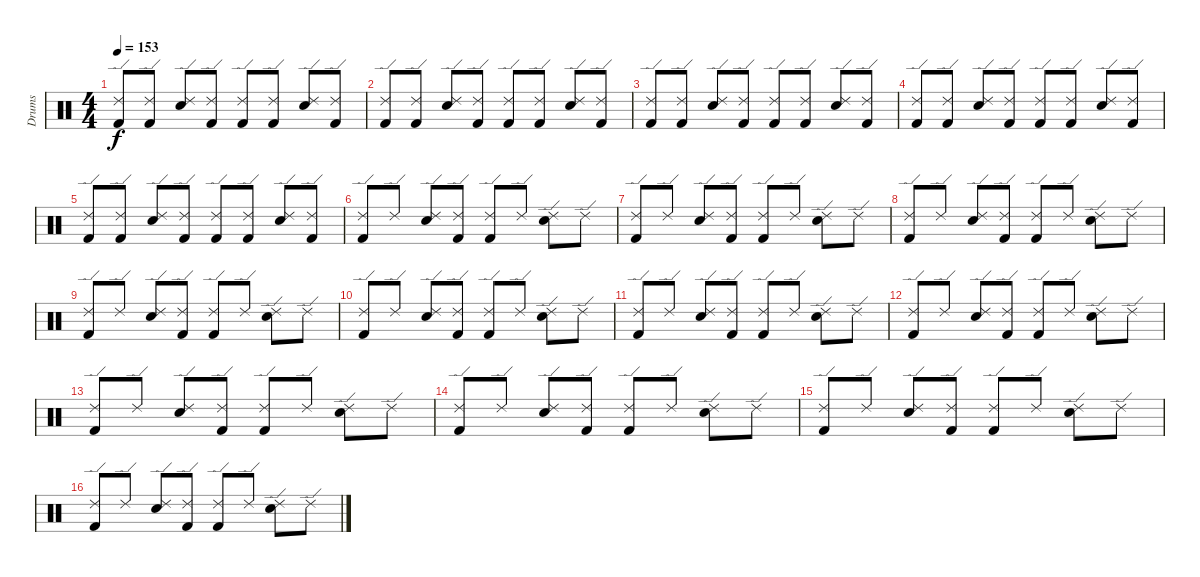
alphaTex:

\track ("Drums" "Drums") {instrument percussion}
\staff {score}
\articulation defaults
\ts (4 4)
\tempo 153
\clef neutral
\ks c
("Kick (hit) 2" "Ride (edge) 2").8{dy f} ("Kick (hit) 2" "Ride (edge) 2").8 ("Electric Snare (hit)" "Ride (edge) 2").8 ("Kick (hit) 2" "Ride (edge) 2").8 ("Kick (hit) 2" "Ride (edge) 2").8 ("Kick (hit) 2" "Ride (edge) 2").8 ("Electric Snare (hit)" "Ride (edge) 2").8 ("Kick (hit) 2" "Ride (edge) 2").8 |
("Kick (hit) 2" "Ride (edge) 2").8 ("Kick (hit) 2" "Ride (edge) 2").8 ("Electric Snare (hit)" "Ride (edge) 2").8 ("Kick (hit) 2" "Ride (edge) 2").8 ("Kick (hit) 2" "Ride (edge) 2").8 ("Kick (hit) 2" "Ride (edge) 2").8 ("Electric Snare (hit)" "Ride (edge) 2").8 ("Kick (hit) 2" "Ride (edge) 2").8 |
("Kick (hit) 2" "Ride (edge) 2").8 ("Kick (hit) 2" "Ride (edge) 2").8 ("Electric Snare (hit)" "Ride (edge) 2").8 ("Kick (hit) 2" "Ride (edge) 2").8 ("Kick (hit) 2" "Ride (edge) 2").8 ("Kick (hit) 2" "Ride (edge) 2").8 ("Electric Snare (hit)" "Ride (edge) 2").8 ("Kick (hit) 2" "Ride (edge) 2").8 |
("Kick (hit) 2" "Ride (edge) 2").8 ("Kick (hit) 2" "Ride (edge) 2").8 ("Electric Snare (hit)" "Ride (edge) 2").8 ("Kick (hit) 2" "Ride (edge) 2").8 ("Kick (hit) 2" "Ride (edge) 2").8 ("Kick (hit) 2" "Ride (edge) 2").8 ("Electric Snare (hit)" "Ride (edge) 2").8 ("Kick (hit) 2" "Ride (edge) 2").8 |
("Kick (hit) 2" "Ride (edge) 2").8 ("Kick (hit) 2" "Ride (edge) 2").8 ("Electric Snare (hit)" "Ride (edge) 2").8 ("Kick (hit) 2" "Ride (edge) 2").8 ("Kick (hit) 2" "Ride (edge) 2").8 ("Kick (hit) 2" "Ride (edge) 2").8 ("Electric Snare (hit)" "Ride (edge) 2").8 ("Kick (hit) 2" "Ride (edge) 2").8 |
("Kick (hit) 2" "Ride (edge) 2").8 "Ride (edge) 2".8 ("Electric Snare (hit)" "Ride (edge) 2").8 ("Kick (hit) 2" "Ride (edge) 2").8 ("Kick (hit) 2" "Ride (edge) 2").8 "Ride (edge) 2".8 ("Electric Snare (hit)" "Ride (edge) 2").8 "Ride (edge) 2".8 |
("Kick (hit) 2" "Ride (edge) 2").8 "Ride (edge) 2".8 ("Electric Snare (hit)" "Ride (edge) 2").8 ("Kick (hit) 2" "Ride (edge) 2").8 ("Kick (hit) 2" "Ride (edge) 2").8 "Ride (edge) 2".8 ("Electric Snare (hit)" "Ride (edge) 2").8 "Ride (edge) 2".8 |
("Kick (hit) 2" "Ride (edge) 2").8 "Ride (edge) 2".8 ("Electric Snare (hit)" "Ride (edge) 2").8 ("Kick (hit) 2" "Ride (edge) 2").8 ("Kick (hit) 2" "Ride (edge) 2").8 "Ride (edge) 2".8 ("Electric Snare (hit)" "Ride (edge) 2").8 "Ride (edge) 2".8 |
("Kick (hit) 2" "Ride (edge) 2").8 "Ride (edge) 2".8 ("Electric Snare (hit)" "Ride (edge) 2").8 ("Kick (hit) 2" "Ride (edge) 2").8 ("Kick (hit) 2" "Ride (edge) 2").8 "Ride (edge) 2".8 ("Electric Snare (hit)" "Ride (edge) 2").8 "Ride (edge) 2".8 |
("Kick (hit) 2" "Ride (edge) 2").8 "Ride (edge) 2".8 ("Electric Snare (hit)" "Ride (edge) 2").8 ("Kick (hit) 2" "Ride (edge) 2").8 ("Kick (hit) 2" "Ride (edge) 2").8 "Ride (edge) 2".8 ("Electric Snare (hit)" "Ride (edge) 2").8 "Ride (edge) 2".8 |
("Kick (hit) 2" "Ride (edge) 2").8 "Ride (edge) 2".8 ("Electric Snare (hit)" "Ride (edge) 2").8 ("Kick (hit) 2" "Ride (edge) 2").8 ("Kick (hit) 2" "Ride (edge) 2").8 "Ride (edge) 2".8 ("Electric Snare (hit)" "Ride (edge) 2").8 "Ride (edge) 2".8 |
("Kick (hit) 2" "Ride (edge) 2").8 "Ride (edge) 2".8 ("Electric Snare (hit)" "Ride (edge) 2").8 ("Kick (hit) 2" "Ride (edge) 2").8 ("Kick (hit) 2" "Ride (edge) 2").8 "Ride (edge) 2".8 ("Electric Snare (hit)" "Ride (edge) 2").8 "Ride (edge) 2".8 |
("Kick (hit) 2" "Ride (edge) 2").8 "Ride (edge) 2".8 ("Electric Snare (hit)" "Ride (edge) 2").8 ("Kick (hit) 2" "Ride (edge) 2").8 ("Kick (hit) 2" "Ride (edge) 2").8 "Ride (edge) 2".8 ("Electric Snare (hit)" "Ride (edge) 2").8 "Ride (edge) 2".8 |
("Kick (hit) 2" "Ride (edge) 2").8 "Ride (edge) 2".8 ("Electric Snare (hit)" "Ride (edge) 2").8 ("Kick (hit) 2" "Ride (edge) 2").8 ("Kick (hit) 2" "Ride (edge) 2").8 "Ride (edge) 2".8 ("Electric Snare (hit)" "Ride (edge) 2").8 "Ride (edge) 2".8 |
("Kick (hit) 2" "Ride (edge) 2").8 "Ride (edge) 2".8 ("Electric Snare (hit)" "Ride (edge) 2").8 ("Kick (hit) 2" "Ride (edge) 2").8 ("Kick (hit) 2" "Ride (edge) 2").8 "Ride (edge) 2".8 ("Electric Snare (hit)" "Ride (edge) 2").8 "Ride (edge) 2".8 |
("Kick (hit) 2" "Ride (edge) 2").8 "Ride (edge) 2".8 ("Electric Snare (hit)" "Ride (edge) 2").8 ("Kick (hit) 2" "Ride (edge) 2").8 ("Kick (hit) 2" "Ride (edge) 2").8 "Ride (edge) 2".8 ("Electric Snare (hit)" "Ride (edge) 2").8 "Ride (edge) 2".8
